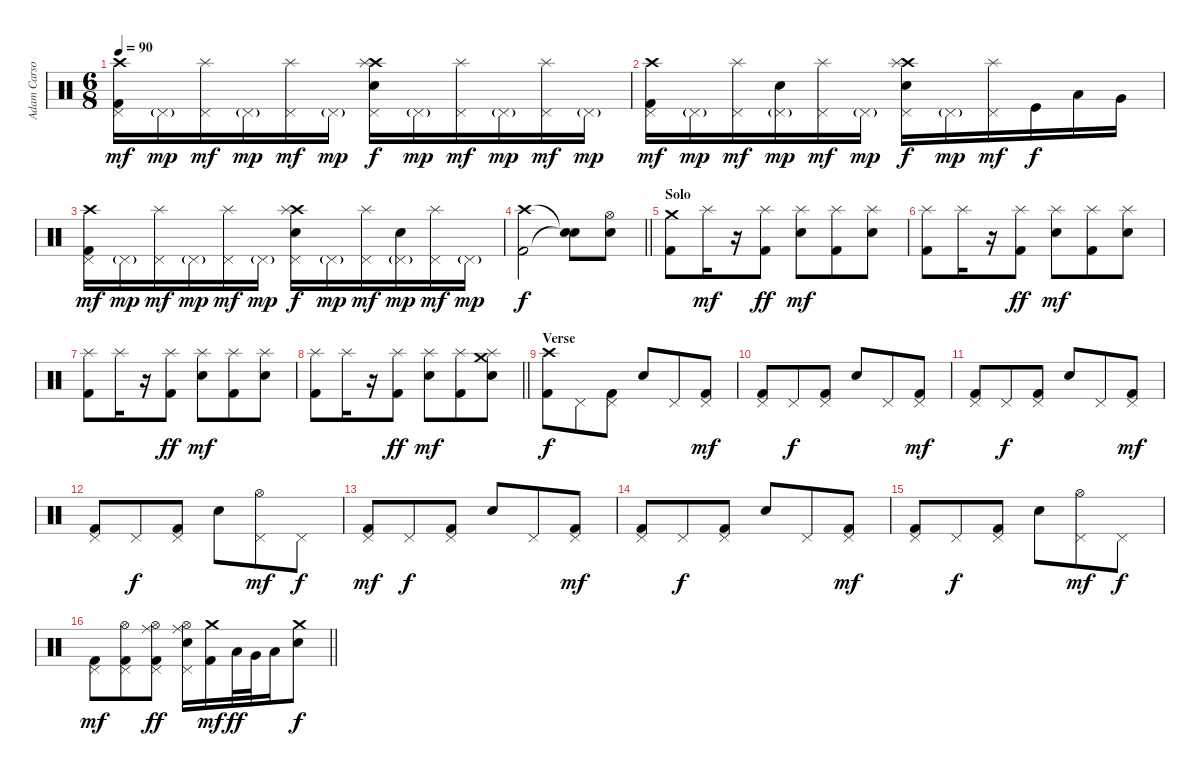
\track ("Adam Carson" "Adam Carso") {instrument percussion}
\staff {score}
\articulation defaults
\ts (6 8)
\tempo 90
\clef neutral
\ks c
("Crash high (hit)" "Pedal Hi-Hat (hit)" "Kick (hit) 2").16{dy mf} "Pedal Hi-Hat (hit)"{g}.16{dy mp} ("Pedal Hi-Hat (hit)" "Splash (hit)").16{dy mf} "Pedal Hi-Hat (hit)"{g}.16{dy mp} ("Pedal Hi-Hat (hit)" "Splash (hit)").16{dy mf} "Pedal Hi-Hat (hit)"{g}.16{dy mp} ("Crash high (hit)" "Pedal Hi-Hat (hit)" "Splash (hit)" "Snare (hit) 2").16{dy f} "Pedal Hi-Hat (hit)"{g}.16{dy mp} ("Pedal Hi-Hat (hit)" "Splash (hit)").16{dy mf} "Pedal Hi-Hat (hit)"{g}.16{dy mp} ("Pedal Hi-Hat (hit)" "Splash (hit)").16{dy mf} "Pedal Hi-Hat (hit)"{g}.16{dy mp} |
("Crash high (hit)" "Pedal Hi-Hat (hit)" "Kick (hit) 2").16{dy mf} "Pedal Hi-Hat (hit)"{g}.16{dy mp} ("Pedal Hi-Hat (hit)" "Splash (hit)").16{dy mf} ("Pedal Hi-Hat (hit)"{g} "Snare (hit) 2").16{dy mp} ("Pedal Hi-Hat (hit)" "Splash (hit)").16{dy mf} "Pedal Hi-Hat (hit)"{g}.16{dy mp} ("Crash high (hit)" "Pedal Hi-Hat (hit)" "Splash (hit)" "Snare (hit) 2").16{dy f} "Pedal Hi-Hat (hit)"{g}.16{dy mp} ("Pedal Hi-Hat (hit)" "Splash (hit)").16{dy mf} "Kick (hit)".16{dy f} "Low Floor Tom (hit)".16 "Very Low Tom (hit)".16 |
("Crash high (hit)" "Pedal Hi-Hat (hit)" "Kick (hit) 2").16{dy mf} "Pedal Hi-Hat (hit)"{g}.16{dy mp} ("Pedal Hi-Hat (hit)" "Splash (hit)").16{dy mf} "Pedal Hi-Hat (hit)"{g}.16{dy mp} ("Pedal Hi-Hat (hit)" "Splash (hit)").16{dy mf} "Pedal Hi-Hat (hit)"{g}.16{dy mp} ("Crash high (hit)" "Pedal Hi-Hat (hit)" "Splash (hit)" "Snare (hit) 2").16{dy f} "Pedal Hi-Hat (hit)"{g}.16{dy mp} ("Pedal Hi-Hat (hit)" "Splash (hit)").16{dy mf} ("Pedal Hi-Hat (hit)"{g} "Snare (hit) 2").16{dy mp} ("Pedal Hi-Hat (hit)" "Splash (hit)").16{dy mf} "Pedal Hi-Hat (hit)"{g}.16{dy mp} |
\barLineRight lightlight
("Crash high (hit)" "Kick (hit) 2").2{dy f} ("Snare (hit)"{t} "Snare (hit)"{t}).8 ("Snare (hit) 2" "Hi-Hat (open)").8 |
\section ("" "Solo")
("Crash medium (hit)" "Kick (hit) 2").8 "Splash (hit)".16{dy mf} r.16 ("Splash (hit)" "Kick (hit) 2").8{dy ff} ("Splash (hit)" "Snare (hit) 2").8{dy mf} ("Splash (hit)" "Kick (hit) 2").8 ("Splash (hit)" "Snare (hit) 2").8 |
("Splash (hit)" "Kick (hit) 2").8 "Splash (hit)".16 r.16 ("Splash (hit)" "Kick (hit) 2").8{dy ff} ("Splash (hit)" "Snare (hit) 2").8{dy mf} ("Splash (hit)" "Kick (hit) 2").8 ("Splash (hit)" "Snare (hit) 2").8 |
("Splash (hit)" "Kick (hit) 2").8 "Splash (hit)".16 r.16 ("Splash (hit)" "Kick (hit) 2").8{dy ff} ("Splash (hit)" "Snare (hit) 2").8{dy mf} ("Splash (hit)" "Kick (hit) 2").8 ("Splash (hit)" "Snare (hit) 2").8 |
\barLineRight lightlight
("Splash (hit)" "Kick (hit) 2").8 "Splash (hit)".16 r.16 ("Splash (hit)" "Kick (hit) 2").8{dy ff} ("Splash (hit)" "Snare (hit) 2").8{dy mf} ("Splash (hit)" "Kick (hit) 2").8 ("Splash (hit)" "Crash medium (hit)" "Snare (hit) 2").8 |
\section ("" "Verse")
("Crash high (hit)" "Kick (hit) 2").8{dy f} "Pedal Hi-Hat (hit)".8 ("Pedal Hi-Hat (hit)" "Kick (hit) 2").8 "Snare (hit) 2".8 "Pedal Hi-Hat (hit)".8 ("Pedal Hi-Hat (hit)" "Kick (hit) 2").8{dy mf} |
("Pedal Hi-Hat (hit)" "Kick (hit) 2").8 "Pedal Hi-Hat (hit)".8{dy f} ("Pedal Hi-Hat (hit)" "Kick (hit) 2").8 "Snare (hit) 2".8 "Pedal Hi-Hat (hit)".8 ("Pedal Hi-Hat (hit)" "Kick (hit) 2").8{dy mf} |
("Pedal Hi-Hat (hit)" "Kick (hit) 2").8 "Pedal Hi-Hat (hit)".8{dy f} ("Pedal Hi-Hat (hit)" "Kick (hit) 2").8 "Snare (hit) 2".8 "Pedal Hi-Hat (hit)".8 ("Pedal Hi-Hat (hit)" "Kick (hit) 2").8{dy mf} |
("Pedal Hi-Hat (hit)" "Kick (hit) 2").8 "Pedal Hi-Hat (hit)".8{dy f} ("Pedal Hi-Hat (hit)" "Kick (hit) 2").8 "Snare (hit) 2".8 ("Pedal Hi-Hat (hit)" "Hi-Hat (open)").8{dy mf} "Pedal Hi-Hat (hit)".8{dy f} |
("Pedal Hi-Hat (hit)" "Kick (hit) 2").8{dy mf} "Pedal Hi-Hat (hit)".8{dy f} ("Pedal Hi-Hat (hit)" "Kick (hit) 2").8 "Snare (hit) 2".8 "Pedal Hi-Hat (hit)".8 ("Pedal Hi-Hat (hit)" "Kick (hit) 2").8{dy mf} |
("Pedal Hi-Hat (hit)" "Kick (hit) 2").8 "Pedal Hi-Hat (hit)".8{dy f} ("Pedal Hi-Hat (hit)" "Kick (hit) 2").8 "Snare (hit) 2".8 "Pedal Hi-Hat (hit)".8 ("Pedal Hi-Hat (hit)" "Kick (hit) 2").8{dy mf} |
("Pedal Hi-Hat (hit)" "Kick (hit) 2").8 "Pedal Hi-Hat (hit)".8{dy f} ("Pedal Hi-Hat (hit)" "Kick (hit) 2").8 "Snare (hit) 2".8 ("Pedal Hi-Hat (hit)" "Hi-Hat (open)").8{dy mf} "Pedal Hi-Hat (hit)".8{dy f} |
\barLineRight lightlight
("Pedal Hi-Hat (hit)" "Kick (hit) 2").8{dy mf} ("Hi-Hat (open)" "Pedal Hi-Hat (hit)" "Kick (hit) 2").8 ("Ride (middle)" "Hi-Hat (open)" "Pedal Hi-Hat (hit)" "Kick (hit) 2").8{dy ff} ("Ride (middle)" "Hi-Hat (open)" "Pedal Hi-Hat (hit)" "Snare (hit) 2").16 ("Crash medium (hit)" "Kick (hit) 2").16{dy mf} "Low Floor Tom (hit)".32{dy ff} "Very Low Tom (hit)".32 "Low Tom (hit)".16 ("Crash medium (hit)" "Snare (hit) 2").8{dy f}
